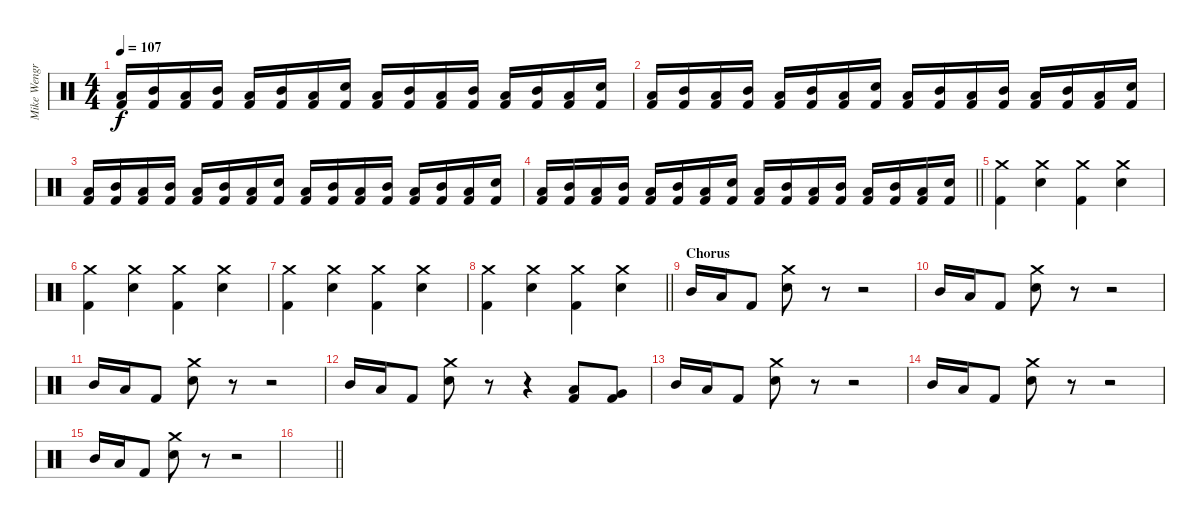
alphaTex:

\track ("Mike Wengren" "Mike Wengr") {instrument percussion}
\staff {score}
\articulation defaults
\ts (4 4)
\tempo 107
\clef neutral
\ks c
("Kick (hit) 2" "Low Tom (hit)").16{dy f} ("Kick (hit) 2" "Mid Tom (hit)").16 ("Kick (hit) 2" "Low Tom (hit)").16 ("Kick (hit) 2" "Mid Tom (hit)").16 ("Kick (hit) 2" "Low Tom (hit)").16 ("Kick (hit) 2" "Mid Tom (hit)").16 ("Kick (hit) 2" "Low Tom (hit)").16 ("Kick (hit) 2" "Electric Snare (hit)").16 ("Kick (hit) 2" "Low Tom (hit)").16 ("Kick (hit) 2" "Mid Tom (hit)").16 ("Kick (hit) 2" "Low Tom (hit)").16 ("Kick (hit) 2" "Mid Tom (hit)").16 ("Kick (hit) 2" "Low Tom (hit)").16 ("Kick (hit) 2" "Mid Tom (hit)").16 ("Kick (hit) 2" "Low Tom (hit)").16 ("Kick (hit) 2" "Electric Snare (hit)").16 |
("Kick (hit) 2" "Low Tom (hit)").16 ("Kick (hit) 2" "Mid Tom (hit)").16 ("Kick (hit) 2" "Low Tom (hit)").16 ("Kick (hit) 2" "Mid Tom (hit)").16 ("Kick (hit) 2" "Low Tom (hit)").16 ("Kick (hit) 2" "Mid Tom (hit)").16 ("Kick (hit) 2" "Low Tom (hit)").16 ("Kick (hit) 2" "Electric Snare (hit)").16 ("Kick (hit) 2" "Low Tom (hit)").16 ("Kick (hit) 2" "Mid Tom (hit)").16 ("Kick (hit) 2" "Low Tom (hit)").16 ("Kick (hit) 2" "Mid Tom (hit)").16 ("Kick (hit) 2" "Low Tom (hit)").16 ("Kick (hit) 2" "Mid Tom (hit)").16 ("Kick (hit) 2" "Low Tom (hit)").16 ("Kick (hit) 2" "Electric Snare (hit)").16 |
("Kick (hit) 2" "Low Tom (hit)").16 ("Kick (hit) 2" "Mid Tom (hit)").16 ("Kick (hit) 2" "Low Tom (hit)").16 ("Kick (hit) 2" "Mid Tom (hit)").16 ("Kick (hit) 2" "Low Tom (hit)").16 ("Kick (hit) 2" "Mid Tom (hit)").16 ("Kick (hit) 2" "Low Tom (hit)").16 ("Kick (hit) 2" "Electric Snare (hit)").16 ("Kick (hit) 2" "Low Tom (hit)").16 ("Kick (hit) 2" "Mid Tom (hit)").16 ("Kick (hit) 2" "Low Tom (hit)").16 ("Kick (hit) 2" "Mid Tom (hit)").16 ("Kick (hit) 2" "Low Tom (hit)").16 ("Kick (hit) 2" "Mid Tom (hit)").16 ("Kick (hit) 2" "Low Tom (hit)").16 ("Kick (hit) 2" "Electric Snare (hit)").16 |
\barLineRight lightlight
("Kick (hit) 2" "Low Tom (hit)").16 ("Kick (hit) 2" "Mid Tom (hit)").16 ("Kick (hit) 2" "Low Tom (hit)").16 ("Kick (hit) 2" "Mid Tom (hit)").16 ("Kick (hit) 2" "Low Tom (hit)").16 ("Kick (hit) 2" "Mid Tom (hit)").16 ("Kick (hit) 2" "Low Tom (hit)").16 ("Kick (hit) 2" "Electric Snare (hit)").16 ("Kick (hit) 2" "Low Tom (hit)").16 ("Kick (hit) 2" "Mid Tom (hit)").16 ("Kick (hit) 2" "Low Tom (hit)").16 ("Kick (hit) 2" "Mid Tom (hit)").16 ("Kick (hit) 2" "Low Tom (hit)").16 ("Kick (hit) 2" "Mid Tom (hit)").16 ("Kick (hit) 2" "Low Tom (hit)").16 ("Kick (hit) 2" "Electric Snare (hit)").16 |
("Kick (hit) 2" "Crash medium (hit)").4 ("Electric Snare (hit)" "Crash medium (hit)").4 ("Kick (hit) 2" "Crash medium (hit)").4 ("Electric Snare (hit)" "Crash medium (hit)").4 |
("Kick (hit) 2" "Crash medium (hit)").4 ("Electric Snare (hit)" "Crash medium (hit)").4 ("Kick (hit) 2" "Crash medium (hit)").4 ("Electric Snare (hit)" "Crash medium (hit)").4 |
("Kick (hit) 2" "Crash medium (hit)").4 ("Electric Snare (hit)" "Crash medium (hit)").4 ("Kick (hit) 2" "Crash medium (hit)").4 ("Electric Snare (hit)" "Crash medium (hit)").4 |
\barLineRight lightlight
("Kick (hit) 2" "Crash medium (hit)").4 ("Electric Snare (hit)" "Crash medium (hit)").4 ("Kick (hit) 2" "Crash medium (hit)").4 ("Electric Snare (hit)" "Crash medium (hit)").4 |
\section ("" "Chorus")
"Mid Tom (hit)".16 "Low Tom (hit)".16 "Kick (hit) 2".8 ("Electric Snare (hit)" "Crash medium (hit)").8 r.8 r.2 |
"Mid Tom (hit)".16 "Low Tom (hit)".16 "Kick (hit) 2".8 ("Electric Snare (hit)" "Crash medium (hit)").8 r.8 r.2 |
"Mid Tom (hit)".16 "Low Tom (hit)".16 "Kick (hit) 2".8 ("Electric Snare (hit)" "Crash medium (hit)").8 r.8 r.2 |
"Mid Tom (hit)".16 "Low Tom (hit)".16 "Kick (hit) 2".8 ("Electric Snare (hit)" "Crash medium (hit)").8 r.8 r.4 ("Kick (hit) 2" "Low Tom (hit)").8 ("Kick (hit) 2" "Very Low Tom (hit)").8 |
"Mid Tom (hit)".16 "Low Tom (hit)".16 "Kick (hit) 2".8 ("Electric Snare (hit)" "Crash medium (hit)").8 r.8 r.2 |
"Mid Tom (hit)".16 "Low Tom (hit)".16 "Kick (hit) 2".8 ("Electric Snare (hit)" "Crash medium (hit)").8 r.8 r.2 |
"Mid Tom (hit)".16 "Low Tom (hit)".16 "Kick (hit) 2".8 ("Electric Snare (hit)" "Crash medium (hit)").8 r.8 r.2 |
\barLineRight lightlight
